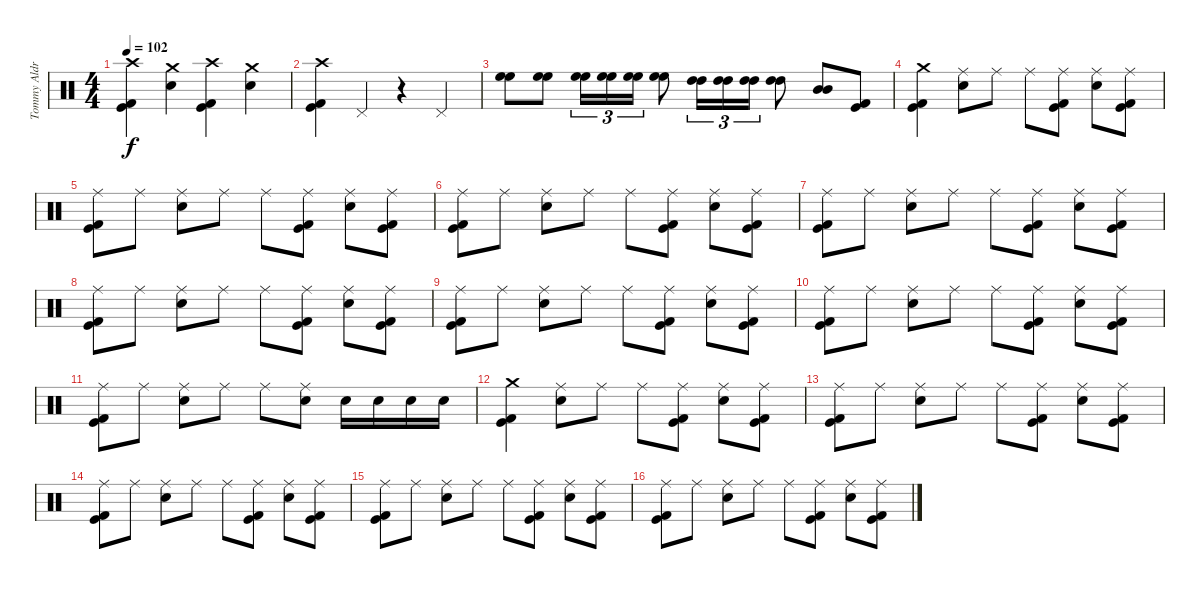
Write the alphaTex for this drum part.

\track ("Tommy Aldridge" "Tommy Aldr") {instrument percussion}
\staff {score}
\articulation defaults
\ts (4 4)
\tempo 102
\clef neutral
\ks c
("Crash high (hit)" "Kick (hit)" "Kick (hit) 2").4{dy f} ("Crash medium (hit)" "Electric Snare (hit)").4 ("Crash high (hit)" "Kick (hit)" "Kick (hit) 2").4 ("Crash medium (hit)" "Electric Snare (hit)").4 |
("Crash high (hit)" "Kick (hit)" "Kick (hit) 2").4 "Pedal Hi-Hat (hit)".4 r.4 "Pedal Hi-Hat (hit)".4 |
("High Floor Tom (hit)" "High Floor Tom (hit)").8 ("High Floor Tom (hit)" "High Floor Tom (hit)").8 ("High Floor Tom (hit)" "High Floor Tom (hit)").16{tu (3 2)} ("High Floor Tom (hit)" "High Floor Tom (hit)").16{tu (3 2)} ("High Floor Tom (hit)" "High Floor Tom (hit)").16{tu (3 2)} ("High Floor Tom (hit)" "High Floor Tom (hit)").8 ("High Tom (hit)" "High Tom (hit)").16{tu (3 2)} ("High Tom (hit)" "High Tom (hit)").16{tu (3 2)} ("High Tom (hit)" "High Tom (hit)").16{tu (3 2)} ("High Tom (hit)" "High Tom (hit)").8 ("Mid Tom (hit)" "Mid Tom (hit)").8 ("Kick (hit)" "Kick (hit) 2").8 |
("Crash medium (hit)" "Kick (hit)" "Kick (hit) 2").4 ("Ride (middle)" "Electric Snare (hit)").8 "Ride (middle)".8 "Ride (middle)".8 ("Ride (middle)" "Kick (hit)" "Kick (hit) 2").8 ("Ride (middle)" "Electric Snare (hit)").8 ("Ride (middle)" "Kick (hit)" "Kick (hit) 2").8 |
("Ride (middle)" "Kick (hit)" "Kick (hit) 2").8 "Ride (middle)".8 ("Ride (middle)" "Electric Snare (hit)").8 "Ride (middle)".8 "Ride (middle)".8 ("Ride (middle)" "Kick (hit)" "Kick (hit) 2").8 ("Ride (middle)" "Electric Snare (hit)").8 ("Ride (middle)" "Kick (hit)" "Kick (hit) 2").8 |
("Ride (middle)" "Kick (hit)" "Kick (hit) 2").8 "Ride (middle)".8 ("Ride (middle)" "Electric Snare (hit)").8 "Ride (middle)".8 "Ride (middle)".8 ("Ride (middle)" "Kick (hit)" "Kick (hit) 2").8 ("Ride (middle)" "Electric Snare (hit)").8 ("Ride (middle)" "Kick (hit)" "Kick (hit) 2").8 |
("Ride (middle)" "Kick (hit)" "Kick (hit) 2").8 "Ride (middle)".8 ("Ride (middle)" "Electric Snare (hit)").8 "Ride (middle)".8 "Ride (middle)".8 ("Ride (middle)" "Kick (hit)" "Kick (hit) 2").8 ("Ride (middle)" "Electric Snare (hit)").8 ("Ride (middle)" "Kick (hit)" "Kick (hit) 2").8 |
("Ride (middle)" "Kick (hit)" "Kick (hit) 2").8 "Ride (middle)".8 ("Ride (middle)" "Electric Snare (hit)").8 "Ride (middle)".8 "Ride (middle)".8 ("Ride (middle)" "Kick (hit)" "Kick (hit) 2").8 ("Ride (middle)" "Electric Snare (hit)").8 ("Ride (middle)" "Kick (hit)" "Kick (hit) 2").8 |
("Ride (middle)" "Kick (hit)" "Kick (hit) 2").8 "Ride (middle)".8 ("Ride (middle)" "Electric Snare (hit)").8 "Ride (middle)".8 "Ride (middle)".8 ("Ride (middle)" "Kick (hit)" "Kick (hit) 2").8 ("Ride (middle)" "Electric Snare (hit)").8 ("Ride (middle)" "Kick (hit)" "Kick (hit) 2").8 |
("Ride (middle)" "Kick (hit)" "Kick (hit) 2").8 "Ride (middle)".8 ("Ride (middle)" "Electric Snare (hit)").8 "Ride (middle)".8 "Ride (middle)".8 ("Ride (middle)" "Kick (hit)" "Kick (hit) 2").8 ("Ride (middle)" "Electric Snare (hit)").8 ("Ride (middle)" "Kick (hit)" "Kick (hit) 2").8 |
("Ride (middle)" "Kick (hit)" "Kick (hit) 2").8 "Ride (middle)".8 ("Ride (middle)" "Electric Snare (hit)").8 "Ride (middle)".8 "Ride (middle)".8 ("Ride (middle)" "Electric Snare (hit)").8 "Electric Snare (hit)".16 "Electric Snare (hit)".16 "Electric Snare (hit)".16 "Electric Snare (hit)".16 |
("Crash medium (hit)" "Kick (hit)" "Kick (hit) 2").4 ("Ride (middle)" "Electric Snare (hit)").8 "Ride (middle)".8 "Ride (middle)".8 ("Ride (middle)" "Kick (hit)" "Kick (hit) 2").8 ("Ride (middle)" "Electric Snare (hit)").8 ("Ride (middle)" "Kick (hit)" "Kick (hit) 2").8 |
("Ride (middle)" "Kick (hit)" "Kick (hit) 2").8 "Ride (middle)".8 ("Ride (middle)" "Electric Snare (hit)").8 "Ride (middle)".8 "Ride (middle)".8 ("Ride (middle)" "Kick (hit)" "Kick (hit) 2").8 ("Ride (middle)" "Electric Snare (hit)").8 ("Ride (middle)" "Kick (hit)" "Kick (hit) 2").8 |
("Ride (middle)" "Kick (hit)" "Kick (hit) 2").8 "Ride (middle)".8 ("Ride (middle)" "Electric Snare (hit)").8 "Ride (middle)".8 "Ride (middle)".8 ("Ride (middle)" "Kick (hit)" "Kick (hit) 2").8 ("Ride (middle)" "Electric Snare (hit)").8 ("Ride (middle)" "Kick (hit)" "Kick (hit) 2").8 |
("Ride (middle)" "Kick (hit)" "Kick (hit) 2").8 "Ride (middle)".8 ("Ride (middle)" "Electric Snare (hit)").8 "Ride (middle)".8 "Ride (middle)".8 ("Ride (middle)" "Kick (hit)" "Kick (hit) 2").8 ("Ride (middle)" "Electric Snare (hit)").8 ("Ride (middle)" "Kick (hit)" "Kick (hit) 2").8 |
("Ride (middle)" "Kick (hit)" "Kick (hit) 2").8 "Ride (middle)".8 ("Ride (middle)" "Electric Snare (hit)").8 "Ride (middle)".8 "Ride (middle)".8 ("Ride (middle)" "Kick (hit)" "Kick (hit) 2").8 ("Ride (middle)" "Electric Snare (hit)").8 ("Ride (middle)" "Kick (hit)" "Kick (hit) 2").8
